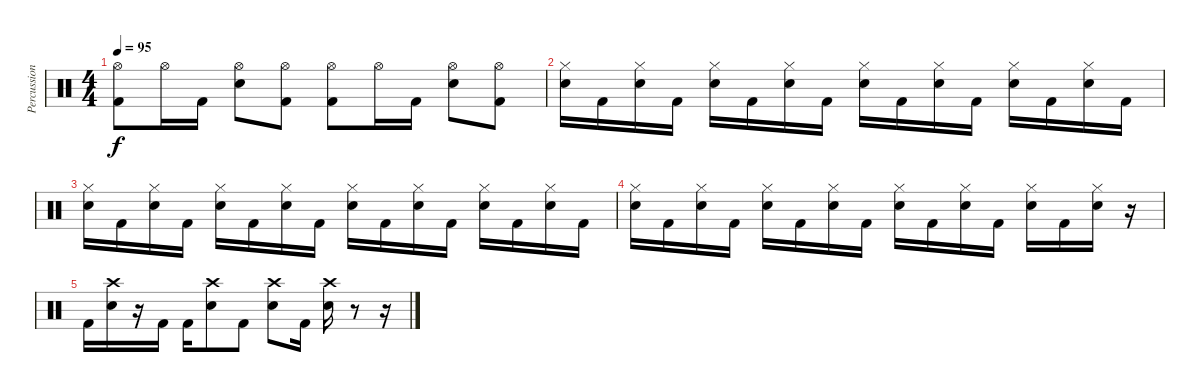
\track ("Percussion" "Percussion") {instrument percussion}
\staff {score}
\articulation defaults
\ts (4 4)
\tempo 95
\clef neutral
\ks c
("Hi-Hat (open)" "Kick (hit) 2").8{dy f} "Hi-Hat (open)".16 "Kick (hit) 2".16 ("Hi-Hat (open)" "Electric Snare (hit)").8 ("Hi-Hat (open)" "Kick (hit) 2").8 ("Hi-Hat (open)" "Kick (hit) 2").8 "Hi-Hat (open)".16 "Kick (hit) 2".16 ("Hi-Hat (open)" "Electric Snare (hit)").8 ("Hi-Hat (open)" "Kick (hit) 2").8 |
("Hi-Hat (closed)" "Electric Snare (hit)").16 "Kick (hit) 2".16 ("Hi-Hat (closed)" "Electric Snare (hit)").16 "Kick (hit) 2".16 ("Hi-Hat (closed)" "Electric Snare (hit)").16 "Kick (hit) 2".16 ("Hi-Hat (closed)" "Electric Snare (hit)").16 "Kick (hit) 2".16 ("Hi-Hat (closed)" "Electric Snare (hit)").16 "Kick (hit) 2".16 ("Hi-Hat (closed)" "Electric Snare (hit)").16 "Kick (hit) 2".16 ("Hi-Hat (closed)" "Electric Snare (hit)").16 "Kick (hit) 2".16 ("Hi-Hat (closed)" "Electric Snare (hit)").16 "Kick (hit) 2".16 |
("Hi-Hat (closed)" "Electric Snare (hit)").16 "Kick (hit) 2".16 ("Hi-Hat (closed)" "Electric Snare (hit)").16 "Kick (hit) 2".16 ("Hi-Hat (closed)" "Electric Snare (hit)").16 "Kick (hit) 2".16 ("Hi-Hat (closed)" "Electric Snare (hit)").16 "Kick (hit) 2".16 ("Hi-Hat (closed)" "Electric Snare (hit)").16 "Kick (hit) 2".16 ("Hi-Hat (closed)" "Electric Snare (hit)").16 "Kick (hit) 2".16 ("Hi-Hat (closed)" "Electric Snare (hit)").16 "Kick (hit) 2".16 ("Hi-Hat (closed)" "Electric Snare (hit)").16 "Kick (hit) 2".16 |
("Hi-Hat (closed)" "Electric Snare (hit)").16 "Kick (hit) 2".16 ("Hi-Hat (closed)" "Electric Snare (hit)").16 "Kick (hit) 2".16 ("Hi-Hat (closed)" "Electric Snare (hit)").16 "Kick (hit) 2".16 ("Hi-Hat (closed)" "Electric Snare (hit)").16 "Kick (hit) 2".16 ("Hi-Hat (closed)" "Electric Snare (hit)").16 "Kick (hit) 2".16 ("Hi-Hat (closed)" "Electric Snare (hit)").16 "Kick (hit) 2".16 ("Hi-Hat (closed)" "Electric Snare (hit)").16 "Kick (hit) 2".16 ("Hi-Hat (closed)" "Electric Snare (hit)").16 r.16 |
"Kick (hit) 2".16 ("Crash high (hit)" "Electric Snare (hit)").16 r.16 "Kick (hit) 2".16 "Kick (hit) 2".16 ("Crash high (hit)" "Electric Snare (hit)").8 "Kick (hit) 2".8 ("Crash high (hit)" "Electric Snare (hit)").8 "Kick (hit) 2".16 ("Crash high (hit)" "Electric Snare (hit)").16 r.8 r.16
